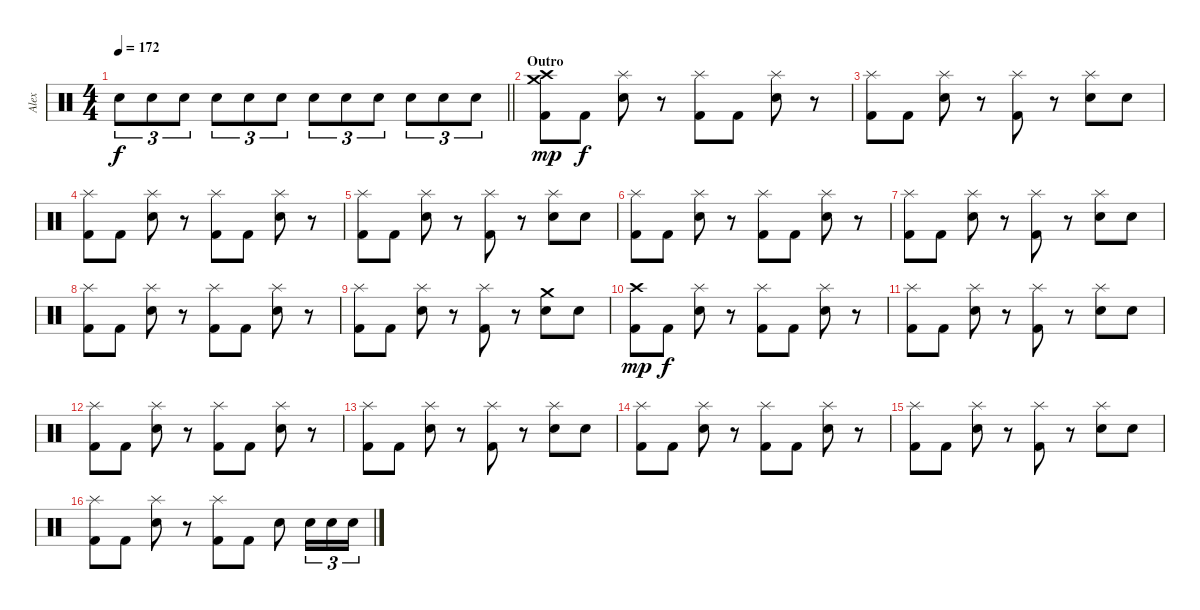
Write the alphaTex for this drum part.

\track ("Alex" "Alex") {instrument percussion}
\staff {score}
\articulation defaults
\ts (4 4)
\tempo 172
\clef neutral
\barLineRight lightlight
\ks c "Electric Snare (hit)".8{tu (3 2) dy f} "Electric Snare (hit)".8{tu (3 2)} "Electric Snare (hit)".8{tu (3 2)} "Electric Snare (hit)".8{tu (3 2)} "Electric Snare (hit)".8{tu (3 2)} "Electric Snare (hit)".8{tu (3 2)} "Electric Snare (hit)".8{tu (3 2)} "Electric Snare (hit)".8{tu (3 2)} "Electric Snare (hit)".8{tu (3 2)} "Electric Snare (hit)".8{tu (3 2)} "Electric Snare (hit)".8{tu (3 2)} "Electric Snare (hit)".8{tu (3 2)}
|
\section ("" "Outro")
("Crash high (hit)" "Crash medium (hit)" "Kick (hit) 2").8{dy mp} "Kick (hit) 2".8{dy f} ("Splash (hit)" "Electric Snare (hit)").8 r.8 ("Splash (hit)" "Kick (hit) 2").8 "Kick (hit) 2".8 ("Splash (hit)" "Electric Snare (hit)").8 r.8 |
("Splash (hit)" "Kick (hit) 2").8 "Kick (hit) 2".8 ("Splash (hit)" "Electric Snare (hit)").8 r.8 ("Splash (hit)" "Kick (hit) 2").8 r.8 ("Splash (hit)" "Electric Snare (hit)").8 "Electric Snare (hit)".8 |
("Splash (hit)" "Kick (hit) 2").8 "Kick (hit) 2".8 ("Splash (hit)" "Electric Snare (hit)").8 r.8 ("Splash (hit)" "Kick (hit) 2").8 "Kick (hit) 2".8 ("Splash (hit)" "Electric Snare (hit)").8 r.8 |
("Splash (hit)" "Kick (hit) 2").8 "Kick (hit) 2".8 ("Splash (hit)" "Electric Snare (hit)").8 r.8 ("Splash (hit)" "Kick (hit) 2").8 r.8 ("Splash (hit)" "Electric Snare (hit)").8 "Electric Snare (hit)".8 |
("Splash (hit)" "Kick (hit) 2").8 "Kick (hit) 2".8 ("Splash (hit)" "Electric Snare (hit)").8 r.8 ("Splash (hit)" "Kick (hit) 2").8 "Kick (hit) 2".8 ("Splash (hit)" "Electric Snare (hit)").8 r.8 |
("Splash (hit)" "Kick (hit) 2").8 "Kick (hit) 2".8 ("Splash (hit)" "Electric Snare (hit)").8 r.8 ("Splash (hit)" "Kick (hit) 2").8 r.8 ("Splash (hit)" "Electric Snare (hit)").8 "Electric Snare (hit)".8 |
("Splash (hit)" "Kick (hit) 2").8 "Kick (hit) 2".8 ("Splash (hit)" "Electric Snare (hit)").8 r.8 ("Splash (hit)" "Kick (hit) 2").8 "Kick (hit) 2".8 ("Splash (hit)" "Electric Snare (hit)").8 r.8 |
("Splash (hit)" "Kick (hit) 2").8 "Kick (hit) 2".8 ("Splash (hit)" "Electric Snare (hit)").8 r.8 ("Splash (hit)" "Kick (hit) 2").8 r.8 ("Crash medium (hit)" "Electric Snare (hit)").8 "Electric Snare (hit)".8 |
("Crash high (hit)" "Kick (hit) 2").8{dy mp} "Kick (hit) 2".8{dy f} ("Splash (hit)" "Electric Snare (hit)").8 r.8 ("Splash (hit)" "Kick (hit) 2").8 "Kick (hit) 2".8 ("Splash (hit)" "Electric Snare (hit)").8 r.8 |
("Splash (hit)" "Kick (hit) 2").8 "Kick (hit) 2".8 ("Splash (hit)" "Electric Snare (hit)").8 r.8 ("Splash (hit)" "Kick (hit) 2").8 r.8 ("Splash (hit)" "Electric Snare (hit)").8 "Electric Snare (hit)".8 |
("Splash (hit)" "Kick (hit) 2").8 "Kick (hit) 2".8 ("Splash (hit)" "Electric Snare (hit)").8 r.8 ("Splash (hit)" "Kick (hit) 2").8 "Kick (hit) 2".8 ("Splash (hit)" "Electric Snare (hit)").8 r.8 |
("Splash (hit)" "Kick (hit) 2").8 "Kick (hit) 2".8 ("Splash (hit)" "Electric Snare (hit)").8 r.8 ("Splash (hit)" "Kick (hit) 2").8 r.8 ("Splash (hit)" "Electric Snare (hit)").8 "Electric Snare (hit)".8 |
("Splash (hit)" "Kick (hit) 2").8 "Kick (hit) 2".8 ("Splash (hit)" "Electric Snare (hit)").8 r.8 ("Splash (hit)" "Kick (hit) 2").8 "Kick (hit) 2".8 ("Splash (hit)" "Electric Snare (hit)").8 r.8 |
("Splash (hit)" "Kick (hit) 2").8 "Kick (hit) 2".8 ("Splash (hit)" "Electric Snare (hit)").8 r.8 ("Splash (hit)" "Kick (hit) 2").8 r.8 ("Splash (hit)" "Electric Snare (hit)").8 "Electric Snare (hit)".8 |
("Splash (hit)" "Kick (hit) 2").8 "Kick (hit) 2".8 ("Splash (hit)" "Electric Snare (hit)").8 r.8 ("Splash (hit)" "Kick (hit) 2").8 "Kick (hit) 2".8 "Electric Snare (hit)".8 "Electric Snare (hit)".16{tu (3 2)} "Electric Snare (hit)".16{tu (3 2)} "Electric Snare (hit)".16{tu (3 2)}
